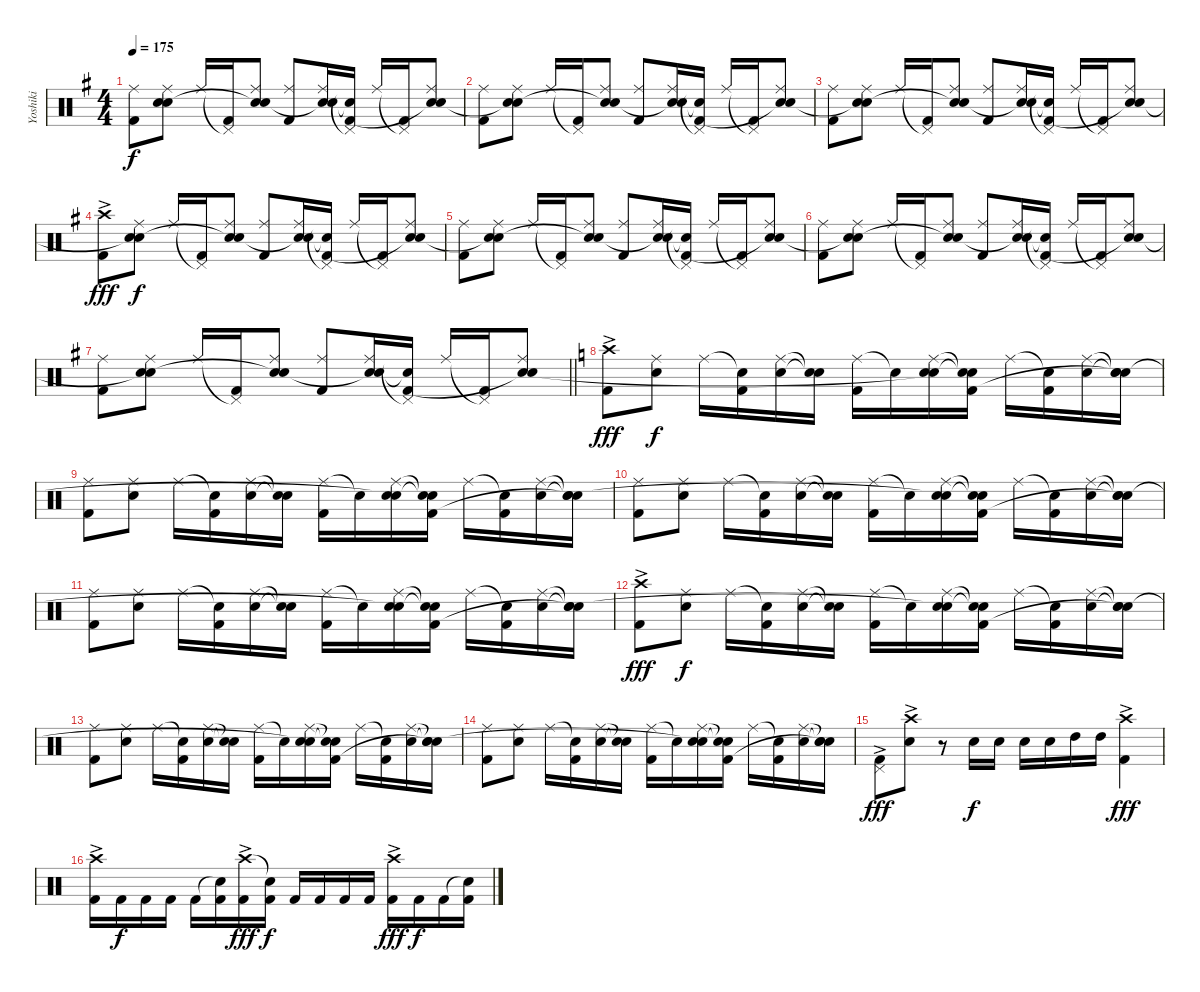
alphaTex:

\track ("Yoshiki" "Yoshiki") {instrument percussion}
\staff {score}
\articulation defaults
\ts (4 4)
\tempo 175
\clef neutral
\ks g
("Ride (middle)" "Kick (hit) 2").8{dy f} ("Ride (middle)" "Snare (hit) 2" "Snare (hit)"{t}).8 "Ride (middle)".16 ("Pedal Hi-Hat (hit)"{t} "Kick (hit) 2").16 ("Ride (middle)" "Snare (hit) 2" "Snare (hit)"{t}).8 ("Ride (middle)" "Kick (hit) 2").8 ("Ride (middle)" "Snare (hit) 2" "Snare (hit)"{t}).16 ("Pedal Hi-Hat (hit)"{t} "Snare (hit) 2"{t} "Kick (hit) 2").16 "Ride (middle)".16 ("Pedal Hi-Hat (hit)"{t} "Kick (hit) 2").16 ("Ride (middle)" "Snare (hit) 2" "Snare (hit)"{t}).8 |
("Ride (middle)" "Kick (hit) 2").8 ("Ride (middle)" "Snare (hit) 2" "Snare (hit)"{t}).8 "Ride (middle)".16 ("Pedal Hi-Hat (hit)"{t} "Kick (hit) 2").16 ("Ride (middle)" "Snare (hit) 2" "Snare (hit)"{t}).8 ("Ride (middle)" "Kick (hit) 2").8 ("Ride (middle)" "Snare (hit) 2" "Snare (hit)"{t}).16 ("Pedal Hi-Hat (hit)"{t} "Snare (hit) 2"{t} "Kick (hit) 2").16 "Ride (middle)".16 ("Pedal Hi-Hat (hit)"{t} "Kick (hit) 2").16 ("Ride (middle)" "Snare (hit) 2" "Snare (hit)"{t}).8 |
("Ride (middle)" "Kick (hit) 2").8 ("Ride (middle)" "Snare (hit) 2" "Snare (hit)"{t}).8 "Ride (middle)".16 ("Pedal Hi-Hat (hit)"{t} "Kick (hit) 2").16 ("Ride (middle)" "Snare (hit) 2" "Snare (hit)"{t}).8 ("Ride (middle)" "Kick (hit) 2").8 ("Ride (middle)" "Snare (hit) 2" "Snare (hit)"{t}).16 ("Pedal Hi-Hat (hit)"{t} "Snare (hit) 2"{t} "Kick (hit) 2").16 "Ride (middle)".16 ("Pedal Hi-Hat (hit)"{t} "Kick (hit) 2").16 ("Ride (middle)" "Snare (hit) 2" "Snare (hit)"{t}).8 |
("Crash high (hit)"{ac} "Kick (hit) 2"{ac}).8{dy fff} ("Ride (middle)" "Snare (hit) 2" "Snare (hit)"{t}).8{dy f} "Ride (middle)".16 ("Pedal Hi-Hat (hit)"{t} "Kick (hit) 2").16 ("Ride (middle)" "Snare (hit) 2" "Snare (hit)"{t}).8 ("Ride (middle)" "Kick (hit) 2").8 ("Ride (middle)" "Snare (hit) 2" "Snare (hit)"{t}).16 ("Pedal Hi-Hat (hit)"{t} "Snare (hit) 2"{t} "Kick (hit) 2").16 "Ride (middle)".16 ("Pedal Hi-Hat (hit)"{t} "Kick (hit) 2").16 ("Ride (middle)" "Snare (hit) 2" "Snare (hit)"{t}).8 |
("Ride (middle)" "Kick (hit) 2").8 ("Ride (middle)" "Snare (hit) 2" "Snare (hit)"{t}).8 "Ride (middle)".16 ("Pedal Hi-Hat (hit)"{t} "Kick (hit) 2").16 ("Ride (middle)" "Snare (hit) 2" "Snare (hit)"{t}).8 ("Ride (middle)" "Kick (hit) 2").8 ("Ride (middle)" "Snare (hit) 2" "Snare (hit)"{t}).16 ("Pedal Hi-Hat (hit)"{t} "Snare (hit) 2"{t} "Kick (hit) 2").16 "Ride (middle)".16 ("Pedal Hi-Hat (hit)"{t} "Kick (hit) 2").16 ("Ride (middle)" "Snare (hit) 2" "Snare (hit)"{t}).8 |
("Ride (middle)" "Kick (hit) 2").8 ("Ride (middle)" "Snare (hit) 2" "Snare (hit)"{t}).8 "Ride (middle)".16 ("Pedal Hi-Hat (hit)"{t} "Kick (hit) 2").16 ("Ride (middle)" "Snare (hit) 2" "Snare (hit)"{t}).8 ("Ride (middle)" "Kick (hit) 2").8 ("Ride (middle)" "Snare (hit) 2" "Snare (hit)"{t}).16 ("Pedal Hi-Hat (hit)"{t} "Snare (hit) 2"{t} "Kick (hit) 2").16 "Ride (middle)".16 ("Pedal Hi-Hat (hit)"{t} "Kick (hit) 2").16 ("Ride (middle)" "Snare (hit) 2" "Snare (hit)"{t}).8 |
\barLineRight lightlight
("Ride (middle)" "Kick (hit) 2").8 ("Ride (middle)" "Snare (hit) 2" "Snare (hit)"{t}).8 "Ride (middle)".16 ("Pedal Hi-Hat (hit)"{t} "Kick (hit) 2").16 ("Ride (middle)" "Snare (hit) 2" "Snare (hit)"{t}).8 ("Ride (middle)" "Kick (hit) 2").8 ("Ride (middle)" "Snare (hit) 2" "Snare (hit)"{t}).16 ("Pedal Hi-Hat (hit)"{t} "Snare (hit) 2"{t} "Kick (hit) 2").16 "Ride (middle)".16 ("Pedal Hi-Hat (hit)"{t} "Kick (hit) 2").16 ("Ride (middle)" "Snare (hit) 2" "Snare (hit)"{t}).8 |
\ks c
("Crash high (hit)"{ac} "Kick (hit) 2"{ac}).8{dy fff} ("Ride (middle)" "Snare (hit) 2").8{dy f} "Ride (middle)".16 ("Snare (hit)"{t} "Kick (hit) 2").16 ("Ride (middle)" "Snare (hit) 2").16 ("Snare (hit)"{t} "Snare (hit)"{t}).16 ("Ride (middle)" "Kick (hit) 2").16 "Snare (hit)"{t}.16 ("Ride (middle)" "Snare (hit) 2" "Snare (hit)"{t}).16 ("Snare (hit)"{t} "Snare (hit)"{t} "Kick (hit) 2").16 "Ride (middle)".16 ("Snare (hit)"{t} "Kick (hit) 2").16 ("Ride (middle)" "Snare (hit) 2").16 ("Snare (hit)"{t} "Snare (hit)"{t} "Snare (hit)"{t}).16 |
("Ride (middle)" "Kick (hit) 2").8 ("Ride (middle)" "Snare (hit) 2").8 "Ride (middle)".16 ("Snare (hit)"{t} "Kick (hit) 2").16 ("Ride (middle)" "Snare (hit) 2").16 ("Snare (hit)"{t} "Snare (hit)"{t}).16 ("Ride (middle)" "Kick (hit) 2").16 "Snare (hit)"{t}.16 ("Ride (middle)" "Snare (hit) 2" "Snare (hit)"{t}).16 ("Snare (hit)"{t} "Snare (hit)"{t} "Kick (hit) 2").16 "Ride (middle)".16 ("Snare (hit)"{t} "Kick (hit) 2").16 ("Ride (middle)" "Snare (hit) 2").16 ("Snare (hit)"{t} "Snare (hit)"{t} "Snare (hit)"{t}).16 |
("Ride (middle)" "Kick (hit) 2").8 ("Ride (middle)" "Snare (hit) 2").8 "Ride (middle)".16 ("Snare (hit)"{t} "Kick (hit) 2").16 ("Ride (middle)" "Snare (hit) 2").16 ("Snare (hit)"{t} "Snare (hit)"{t}).16 ("Ride (middle)" "Kick (hit) 2").16 "Snare (hit)"{t}.16 ("Ride (middle)" "Snare (hit) 2" "Snare (hit)"{t}).16 ("Snare (hit)"{t} "Snare (hit)"{t} "Kick (hit) 2").16 "Ride (middle)".16 ("Snare (hit)"{t} "Kick (hit) 2").16 ("Ride (middle)" "Snare (hit) 2").16 ("Snare (hit)"{t} "Snare (hit)"{t} "Snare (hit)"{t}).16 |
("Ride (middle)" "Kick (hit) 2").8 ("Ride (middle)" "Snare (hit) 2").8 "Ride (middle)".16 ("Snare (hit)"{t} "Kick (hit) 2").16 ("Ride (middle)" "Snare (hit) 2").16 ("Snare (hit)"{t} "Snare (hit)"{t}).16 ("Ride (middle)" "Kick (hit) 2").16 "Snare (hit)"{t}.16 ("Ride (middle)" "Snare (hit) 2" "Snare (hit)"{t}).16 ("Snare (hit)"{t} "Snare (hit)"{t} "Kick (hit) 2").16 "Ride (middle)".16 ("Snare (hit)"{t} "Kick (hit) 2").16 ("Ride (middle)" "Snare (hit) 2").16 ("Snare (hit)"{t} "Snare (hit)"{t} "Snare (hit)"{t}).16 |
("Crash high (hit)"{ac} "Kick (hit) 2"{ac}).8{dy fff} ("Ride (middle)" "Snare (hit) 2").8{dy f} "Ride (middle)".16 ("Snare (hit)"{t} "Kick (hit) 2").16 ("Ride (middle)" "Snare (hit) 2").16 ("Snare (hit)"{t} "Snare (hit)"{t}).16 ("Ride (middle)" "Kick (hit) 2").16 "Snare (hit)"{t}.16 ("Ride (middle)" "Snare (hit) 2" "Snare (hit)"{t}).16 ("Snare (hit)"{t} "Snare (hit)"{t} "Kick (hit) 2").16 "Ride (middle)".16 ("Snare (hit)"{t} "Kick (hit) 2").16 ("Ride (middle)" "Snare (hit) 2").16 ("Snare (hit)"{t} "Snare (hit)"{t} "Snare (hit)"{t}).16 |
("Ride (middle)" "Kick (hit) 2").8 ("Ride (middle)" "Snare (hit) 2").8 "Ride (middle)".16 ("Snare (hit)"{t} "Kick (hit) 2").16 ("Ride (middle)" "Snare (hit) 2").16 ("Snare (hit)"{t} "Snare (hit)"{t}).16 ("Ride (middle)" "Kick (hit) 2").16 "Snare (hit)"{t}.16 ("Ride (middle)" "Snare (hit) 2" "Snare (hit)"{t}).16 ("Snare (hit)"{t} "Snare (hit)"{t} "Kick (hit) 2").16 "Ride (middle)".16 ("Snare (hit)"{t} "Kick (hit) 2").16 ("Ride (middle)" "Snare (hit) 2").16 ("Snare (hit)"{t} "Snare (hit)"{t} "Snare (hit)"{t}).16 |
("Ride (middle)" "Kick (hit) 2").8 ("Ride (middle)" "Snare (hit) 2").8 "Ride (middle)".16 ("Snare (hit)"{t} "Kick (hit) 2").16 ("Ride (middle)" "Snare (hit) 2").16 ("Snare (hit)"{t} "Snare (hit)"{t}).16 ("Ride (middle)" "Kick (hit) 2").16 "Snare (hit)"{t}.16 ("Ride (middle)" "Snare (hit) 2" "Snare (hit)"{t}).16 ("Snare (hit)"{t} "Snare (hit)"{t} "Kick (hit) 2").16 "Ride (middle)".16 ("Snare (hit)"{t} "Kick (hit) 2").16 ("Ride (middle)" "Snare (hit) 2").16 ("Snare (hit)"{t} "Snare (hit)"{t} "Snare (hit)"{t}).16 |
("Pedal Hi-Hat (hit)" "Kick (hit) 2"{ac}).8{dy fff} ("Crash high (hit)"{ac} "Snare (hit) 2"{ac}).8 r.8 "Snare (hit) 2".16{dy f} "Snare (hit) 2".16 "Snare (hit) 2".16 "Snare (hit) 2".16 "High Tom (hit)".16 "High Tom (hit)".16 ("Crash high (hit)" "Kick (hit) 2"{ac}).4{dy fff} |
("Crash high (hit)"{ac} "Kick (hit) 2").16 "Kick (hit) 2".16{dy f} "Kick (hit) 2".16 "Kick (hit) 2".16 "Kick (hit) 2".16 ("Snare (hit)"{t} "Kick (hit) 2").16 ("Crash high (hit)"{ac} "Kick (hit) 2").16{dy fff} ("Snare (hit)"{t} "Kick (hit) 2").16{dy f} "Kick (hit) 2".16 "Kick (hit) 2".16 "Kick (hit) 2".16 "Kick (hit) 2".16 ("Crash high (hit)"{ac} "Kick (hit) 2").16{dy fff} "Kick (hit) 2".16{dy f} "Kick (hit) 2".16 ("Snare (hit)"{t} "Kick (hit) 2").16
